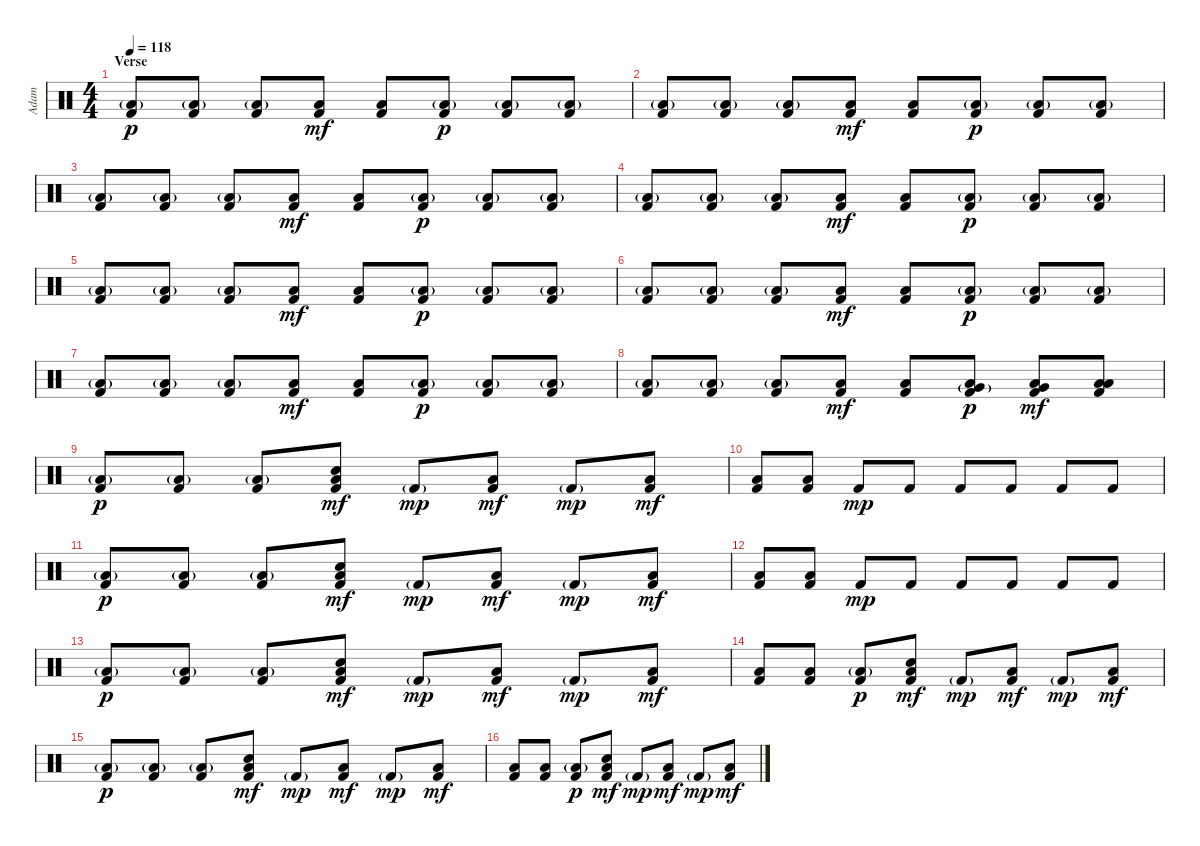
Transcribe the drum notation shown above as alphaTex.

\track ("Adam" "Adam") {instrument percussion}
\staff {score}
\articulation defaults
\ts (4 4)
\section ("" "Verse")
\tempo 118
\clef neutral
\ks c
("Kick (hit) 2" "Low Floor Tom (hit)"{g}).8{bd 60 dy p} ("Kick (hit) 2" "Low Floor Tom (hit)"{g}).8{bd 60} ("Kick (hit) 2" "Low Floor Tom (hit)"{g}).8{bd 60} ("Kick (hit) 2" "Low Floor Tom (hit)").8{bd 60 dy mf} ("Kick (hit) 2" "Low Floor Tom (hit)").8{bd 60} ("Kick (hit) 2" "Low Floor Tom (hit)"{g}).8{bd 60 dy p} ("Kick (hit) 2" "Low Floor Tom (hit)"{g}).8{bd 60} ("Kick (hit) 2" "Low Floor Tom (hit)"{g}).8{bd 60} |
("Kick (hit) 2" "Low Floor Tom (hit)"{g}).8{bd 60} ("Kick (hit) 2" "Low Floor Tom (hit)"{g}).8{bd 60} ("Kick (hit) 2" "Low Floor Tom (hit)"{g}).8{bd 60} ("Kick (hit) 2" "Low Floor Tom (hit)").8{bd 60 dy mf} ("Kick (hit) 2" "Low Floor Tom (hit)").8{bd 60} ("Kick (hit) 2" "Low Floor Tom (hit)"{g}).8{bd 60 dy p} ("Kick (hit) 2" "Low Floor Tom (hit)"{g}).8{bd 60} ("Kick (hit) 2" "Low Floor Tom (hit)"{g}).8{bd 60} |
("Kick (hit) 2" "Low Floor Tom (hit)"{g}).8{bd 60} ("Kick (hit) 2" "Low Floor Tom (hit)"{g}).8{bd 60} ("Kick (hit) 2" "Low Floor Tom (hit)"{g}).8{bd 60} ("Kick (hit) 2" "Low Floor Tom (hit)").8{bd 60 dy mf} ("Kick (hit) 2" "Low Floor Tom (hit)").8{bd 60} ("Kick (hit) 2" "Low Floor Tom (hit)"{g}).8{bd 60 dy p} ("Kick (hit) 2" "Low Floor Tom (hit)"{g}).8{bd 60} ("Kick (hit) 2" "Low Floor Tom (hit)"{g}).8{bd 60} |
("Kick (hit) 2" "Low Floor Tom (hit)"{g}).8{bd 60} ("Kick (hit) 2" "Low Floor Tom (hit)"{g}).8{bd 60} ("Kick (hit) 2" "Low Floor Tom (hit)"{g}).8{bd 60} ("Kick (hit) 2" "Low Floor Tom (hit)").8{bd 60 dy mf} ("Kick (hit) 2" "Low Floor Tom (hit)").8{bd 60} ("Kick (hit) 2" "Low Floor Tom (hit)"{g}).8{bd 60 dy p} ("Kick (hit) 2" "Low Floor Tom (hit)"{g}).8{bd 60} ("Kick (hit) 2" "Low Floor Tom (hit)"{g}).8{bd 60} |
("Kick (hit) 2" "Low Floor Tom (hit)"{g}).8{bd 60} ("Kick (hit) 2" "Low Floor Tom (hit)"{g}).8{bd 60} ("Kick (hit) 2" "Low Floor Tom (hit)"{g}).8{bd 60} ("Kick (hit) 2" "Low Floor Tom (hit)").8{bd 60 dy mf} ("Kick (hit) 2" "Low Floor Tom (hit)").8{bd 60} ("Kick (hit) 2" "Low Floor Tom (hit)"{g}).8{bd 60 dy p} ("Kick (hit) 2" "Low Floor Tom (hit)"{g}).8{bd 60} ("Kick (hit) 2" "Low Floor Tom (hit)"{g}).8{bd 60} |
("Kick (hit) 2" "Low Floor Tom (hit)"{g}).8{bd 60} ("Kick (hit) 2" "Low Floor Tom (hit)"{g}).8{bd 60} ("Kick (hit) 2" "Low Floor Tom (hit)"{g}).8{bd 60} ("Kick (hit) 2" "Low Floor Tom (hit)").8{bd 60 dy mf} ("Kick (hit) 2" "Low Floor Tom (hit)").8{bd 60} ("Kick (hit) 2" "Low Floor Tom (hit)"{g}).8{bd 60 dy p} ("Kick (hit) 2" "Low Floor Tom (hit)"{g}).8{bd 60} ("Kick (hit) 2" "Low Floor Tom (hit)"{g}).8{bd 60} |
("Kick (hit) 2" "Low Floor Tom (hit)"{g}).8{bd 60} ("Kick (hit) 2" "Low Floor Tom (hit)"{g}).8{bd 60} ("Kick (hit) 2" "Low Floor Tom (hit)"{g}).8{bd 60} ("Kick (hit) 2" "Low Floor Tom (hit)").8{bd 60 dy mf} ("Kick (hit) 2" "Low Floor Tom (hit)").8{bd 60} ("Kick (hit) 2" "Low Floor Tom (hit)"{g}).8{bd 60 dy p} ("Kick (hit) 2" "Low Floor Tom (hit)"{g}).8{bd 60} ("Kick (hit) 2" "Low Floor Tom (hit)"{g}).8{bd 60} |
("Kick (hit) 2" "Low Floor Tom (hit)"{g}).8{bd 60} ("Kick (hit) 2" "Low Floor Tom (hit)"{g}).8{bd 60} ("Kick (hit) 2" "Low Floor Tom (hit)"{g}).8{bd 60} ("Kick (hit) 2" "Low Floor Tom (hit)").8{bd 60 dy mf} ("Kick (hit) 2" "Low Floor Tom (hit)").8{bd 60} ("Kick (hit) 2" "Low Floor Tom (hit)" "Very Low Tom (hit)"{g}).8{bd 60 dy p} ("Kick (hit) 2" "Low Floor Tom (hit)" "Very Low Tom (hit)").8{bd 60 dy mf} ("Kick (hit) 2" "Low Floor Tom (hit)" "Low Tom (hit)").8{bd 60} |
("Kick (hit) 2" "Low Floor Tom (hit)"{g}).8{bd 60 dy p} ("Kick (hit) 2" "Low Floor Tom (hit)"{g}).8{bd 60} ("Kick (hit) 2" "Low Floor Tom (hit)"{g}).8{bd 60} ("Kick (hit) 2" "Low Floor Tom (hit)" "Snare (hit) 2").8{bd 60 dy mf} "Kick (hit) 2"{g}.8{dy mp} ("Kick (hit) 2" "Low Floor Tom (hit)").8{bd 60 dy mf} "Kick (hit) 2"{g}.8{dy mp} ("Kick (hit) 2" "Low Floor Tom (hit)").8{bd 60 dy mf} |
("Kick (hit) 2" "Low Floor Tom (hit)").8{bd 60} ("Kick (hit) 2" "Low Floor Tom (hit)").8{bd 60} "Kick (hit) 2".8{dy mp} "Kick (hit) 2".8 "Kick (hit) 2".8 "Kick (hit) 2".8 "Kick (hit) 2".8 "Kick (hit) 2".8 |
("Kick (hit) 2" "Low Floor Tom (hit)"{g}).8{bd 60 dy p} ("Kick (hit) 2" "Low Floor Tom (hit)"{g}).8{bd 60} ("Kick (hit) 2" "Low Floor Tom (hit)"{g}).8{bd 60} ("Kick (hit) 2" "Low Floor Tom (hit)" "Snare (hit) 2").8{bd 60 dy mf} "Kick (hit) 2"{g}.8{dy mp} ("Kick (hit) 2" "Low Floor Tom (hit)").8{bd 60 dy mf} "Kick (hit) 2"{g}.8{dy mp} ("Kick (hit) 2" "Low Floor Tom (hit)").8{bd 60 dy mf} |
("Kick (hit) 2" "Low Floor Tom (hit)").8{bd 60} ("Kick (hit) 2" "Low Floor Tom (hit)").8{bd 60} "Kick (hit) 2".8{dy mp} "Kick (hit) 2".8 "Kick (hit) 2".8 "Kick (hit) 2".8 "Kick (hit) 2".8 "Kick (hit) 2".8 |
("Kick (hit) 2" "Low Floor Tom (hit)"{g}).8{bd 60 dy p} ("Kick (hit) 2" "Low Floor Tom (hit)"{g}).8{bd 60} ("Kick (hit) 2" "Low Floor Tom (hit)"{g}).8{bd 60} ("Kick (hit) 2" "Low Floor Tom (hit)" "Snare (hit) 2").8{bd 60 dy mf} "Kick (hit) 2"{g}.8{dy mp} ("Kick (hit) 2" "Low Floor Tom (hit)").8{bd 60 dy mf} "Kick (hit) 2"{g}.8{dy mp} ("Kick (hit) 2" "Low Floor Tom (hit)").8{bd 60 dy mf} |
("Kick (hit) 2" "Low Floor Tom (hit)").8{bd 60} ("Kick (hit) 2" "Low Floor Tom (hit)").8{bd 60} ("Kick (hit) 2" "Low Floor Tom (hit)"{g}).8{bd 60 dy p} ("Kick (hit) 2" "Low Floor Tom (hit)" "Snare (hit) 2").8{bd 60 dy mf} "Kick (hit) 2"{g}.8{dy mp} ("Kick (hit) 2" "Low Floor Tom (hit)").8{bd 60 dy mf} "Kick (hit) 2"{g}.8{dy mp} ("Kick (hit) 2" "Low Floor Tom (hit)").8{bd 60 dy mf} |
("Kick (hit) 2" "Low Floor Tom (hit)"{g}).8{bd 60 dy p} ("Kick (hit) 2" "Low Floor Tom (hit)"{g}).8{bd 60} ("Kick (hit) 2" "Low Floor Tom (hit)"{g}).8{bd 60} ("Kick (hit) 2" "Low Floor Tom (hit)" "Snare (hit) 2").8{bd 60 dy mf} "Kick (hit) 2"{g}.8{dy mp} ("Kick (hit) 2" "Low Floor Tom (hit)").8{bd 60 dy mf} "Kick (hit) 2"{g}.8{dy mp} ("Kick (hit) 2" "Low Floor Tom (hit)").8{bd 60 dy mf} |
("Kick (hit) 2" "Low Floor Tom (hit)").8{bd 60} ("Kick (hit) 2" "Low Floor Tom (hit)").8{bd 60} ("Kick (hit) 2" "Low Floor Tom (hit)"{g}).8{bd 60 dy p} ("Kick (hit) 2" "Low Floor Tom (hit)" "Snare (hit) 2").8{bd 60 dy mf} "Kick (hit) 2"{g}.8{dy mp} ("Kick (hit) 2" "Low Floor Tom (hit)").8{bd 60 dy mf} "Kick (hit) 2"{g}.8{dy mp} ("Kick (hit) 2" "Low Floor Tom (hit)").8{bd 60 dy mf}
